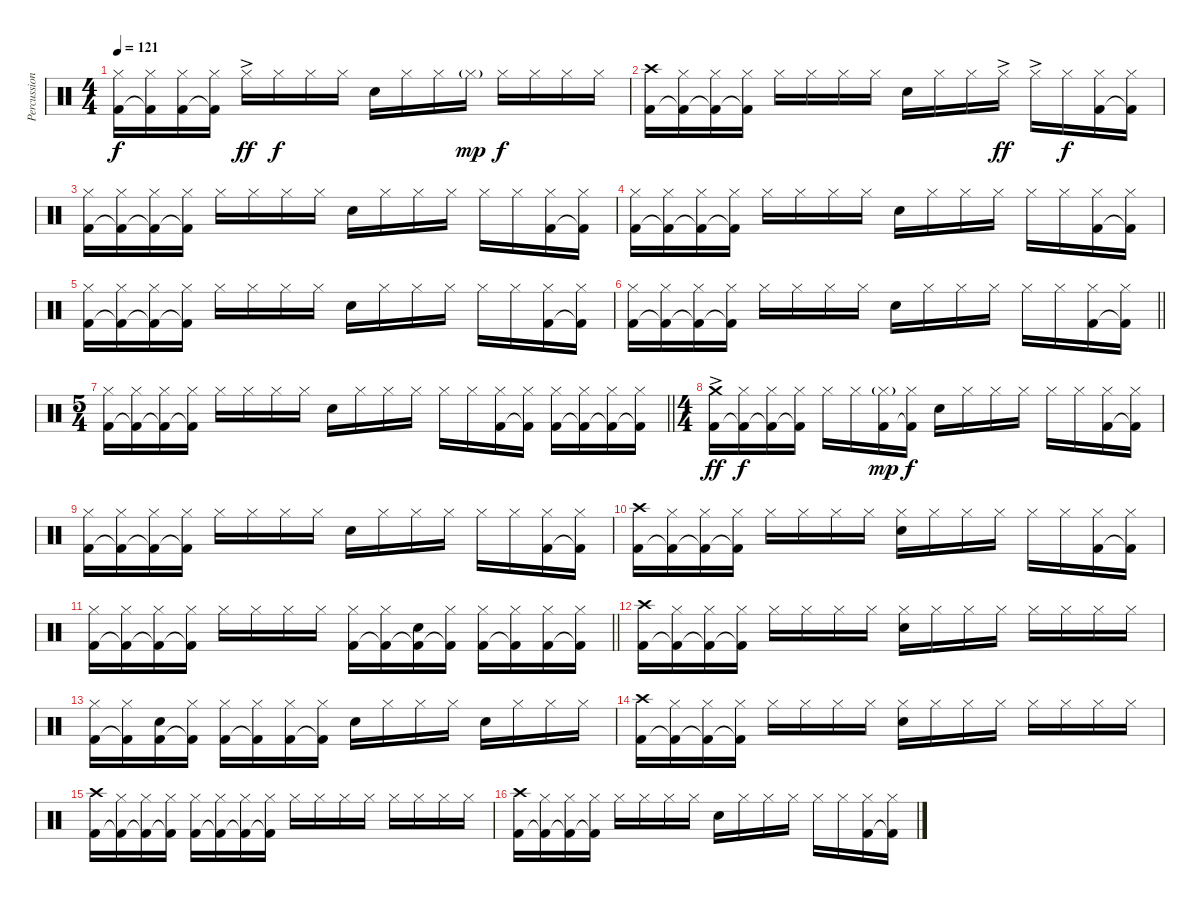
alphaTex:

\track ("Percussioni" "Percussion") {instrument percussion}
\staff {score}
\articulation defaults
\ts (4 4)
\tempo 121
\clef neutral
\ks c
("Hi-Hat (closed)" "Kick (hit) 2").16{dy f} ("Hi-Hat (closed)" "Kick (hit) 2"{t}).16 ("Hi-Hat (closed)" "Kick (hit) 2").16 ("Hi-Hat (closed)" "Kick (hit) 2"{t}).16 "Hi-Hat (closed)"{ac}.16{dy ff} "Hi-Hat (closed)".16{dy f} "Hi-Hat (closed)".16 "Hi-Hat (closed)".16 "Snare (hit) 2".16 "Hi-Hat (closed)".16 "Hi-Hat (closed)".16 "Hi-Hat (closed)"{g}.16{dy mp} "Hi-Hat (closed)".16{dy f} "Hi-Hat (closed)".16 "Hi-Hat (closed)".16 "Hi-Hat (closed)".16 |
("Crash high (hit)" "Kick (hit) 2").16 ("Hi-Hat (closed)" "Kick (hit) 2"{t}).16 ("Hi-Hat (closed)" "Kick (hit) 2"{t}).16 ("Hi-Hat (closed)" "Kick (hit) 2"{t}).16 "Hi-Hat (closed)".16 "Hi-Hat (closed)".16 "Hi-Hat (closed)".16 "Hi-Hat (closed)".16 "Snare (hit) 2".16 "Hi-Hat (closed)".16 "Hi-Hat (closed)".16 "Hi-Hat (closed)"{ac}.16{dy ff} "Hi-Hat (closed)"{ac}.16 "Hi-Hat (closed)".16{dy f} ("Hi-Hat (closed)" "Kick (hit) 2").16 ("Hi-Hat (closed)" "Kick (hit) 2"{t}).16 |
("Hi-Hat (closed)" "Kick (hit) 2").16 ("Hi-Hat (closed)" "Kick (hit) 2"{t}).16 ("Hi-Hat (closed)" "Kick (hit) 2"{t}).16 ("Hi-Hat (closed)" "Kick (hit) 2"{t}).16 "Hi-Hat (closed)".16 "Hi-Hat (closed)".16 "Hi-Hat (closed)".16 "Hi-Hat (closed)".16 "Snare (hit) 2".16 "Hi-Hat (closed)".16 "Hi-Hat (closed)".16 "Hi-Hat (closed)".16 "Hi-Hat (closed)".16 "Hi-Hat (closed)".16 ("Hi-Hat (closed)" "Kick (hit) 2").16 ("Hi-Hat (closed)" "Kick (hit) 2"{t}).16 |
("Hi-Hat (closed)" "Kick (hit) 2").16 ("Hi-Hat (closed)" "Kick (hit) 2"{t}).16 ("Hi-Hat (closed)" "Kick (hit) 2"{t}).16 ("Hi-Hat (closed)" "Kick (hit) 2"{t}).16 "Hi-Hat (closed)".16 "Hi-Hat (closed)".16 "Hi-Hat (closed)".16 "Hi-Hat (closed)".16 "Snare (hit) 2".16 "Hi-Hat (closed)".16 "Hi-Hat (closed)".16 "Hi-Hat (closed)".16 "Hi-Hat (closed)".16 "Hi-Hat (closed)".16 ("Hi-Hat (closed)" "Kick (hit) 2").16 ("Hi-Hat (closed)" "Kick (hit) 2"{t}).16 |
("Hi-Hat (closed)" "Kick (hit) 2").16 ("Hi-Hat (closed)" "Kick (hit) 2"{t}).16 ("Hi-Hat (closed)" "Kick (hit) 2"{t}).16 ("Hi-Hat (closed)" "Kick (hit) 2"{t}).16 "Hi-Hat (closed)".16 "Hi-Hat (closed)".16 "Hi-Hat (closed)".16 "Hi-Hat (closed)".16 "Snare (hit) 2".16 "Hi-Hat (closed)".16 "Hi-Hat (closed)".16 "Hi-Hat (closed)".16 "Hi-Hat (closed)".16 "Hi-Hat (closed)".16 ("Hi-Hat (closed)" "Kick (hit) 2").16 ("Hi-Hat (closed)" "Kick (hit) 2"{t}).16 |
\barLineRight lightlight
("Hi-Hat (closed)" "Kick (hit) 2").16 ("Hi-Hat (closed)" "Kick (hit) 2"{t}).16 ("Hi-Hat (closed)" "Kick (hit) 2"{t}).16 ("Hi-Hat (closed)" "Kick (hit) 2"{t}).16 "Hi-Hat (closed)".16 "Hi-Hat (closed)".16 "Hi-Hat (closed)".16 "Hi-Hat (closed)".16 "Snare (hit) 2".16 "Hi-Hat (closed)".16 "Hi-Hat (closed)".16 "Hi-Hat (closed)".16 "Hi-Hat (closed)".16 "Hi-Hat (closed)".16 ("Hi-Hat (closed)" "Kick (hit) 2").16 ("Hi-Hat (closed)" "Kick (hit) 2"{t}).16 |
\ts (5 4)
\barLineRight lightlight
("Hi-Hat (closed)" "Kick (hit) 2").16 ("Hi-Hat (closed)" "Kick (hit) 2"{t}).16 ("Hi-Hat (closed)" "Kick (hit) 2"{t}).16 ("Hi-Hat (closed)" "Kick (hit) 2"{t}).16 "Hi-Hat (closed)".16 "Hi-Hat (closed)".16 "Hi-Hat (closed)".16 "Hi-Hat (closed)".16 "Snare (hit) 2".16 "Hi-Hat (closed)".16 "Hi-Hat (closed)".16 "Hi-Hat (closed)".16 "Hi-Hat (closed)".16 "Hi-Hat (closed)".16 ("Hi-Hat (closed)" "Kick (hit) 2").16 ("Hi-Hat (closed)" "Kick (hit) 2"{t}).16 ("Hi-Hat (closed)" "Kick (hit) 2").16 ("Hi-Hat (closed)" "Kick (hit) 2"{t}).16 ("Hi-Hat (closed)" "Kick (hit) 2"{t}).16 ("Hi-Hat (closed)" "Kick (hit) 2"{t}).16 |
\ts (4 4)
("Crash medium (hit)"{ac} "Kick (hit) 2").16{dy ff} ("Hi-Hat (closed)" "Kick (hit) 2"{t}).16{dy f} ("Hi-Hat (closed)" "Kick (hit) 2"{t}).16 ("Hi-Hat (closed)" "Kick (hit) 2"{t}).16 "Hi-Hat (closed)".16 "Hi-Hat (closed)".16 ("Hi-Hat (closed)"{g} "Kick (hit) 2").16{dy mp} ("Hi-Hat (closed)" "Kick (hit) 2"{t}).16{dy f} "Snare (hit) 2".16 "Hi-Hat (closed)".16 "Hi-Hat (closed)".16 "Hi-Hat (closed)".16 "Hi-Hat (closed)".16 "Hi-Hat (closed)".16 ("Hi-Hat (closed)" "Kick (hit) 2").16 ("Hi-Hat (closed)" "Kick (hit) 2"{t}).16 |
("Hi-Hat (closed)" "Kick (hit) 2").16 ("Hi-Hat (closed)" "Kick (hit) 2"{t}).16 ("Hi-Hat (closed)" "Kick (hit) 2"{t}).16 ("Hi-Hat (closed)" "Kick (hit) 2"{t}).16 "Hi-Hat (closed)".16 "Hi-Hat (closed)".16 "Hi-Hat (closed)".16 "Hi-Hat (closed)".16 "Snare (hit) 2".16 "Hi-Hat (closed)".16 "Hi-Hat (closed)".16 "Hi-Hat (closed)".16 "Hi-Hat (closed)".16 "Hi-Hat (closed)".16 ("Hi-Hat (closed)" "Kick (hit) 2").16 ("Hi-Hat (closed)" "Kick (hit) 2"{t}).16 |
("Crash high (hit)" "Kick (hit) 2").16 ("Hi-Hat (closed)" "Kick (hit) 2"{t}).16 ("Hi-Hat (closed)" "Kick (hit) 2"{t}).16 ("Hi-Hat (closed)" "Kick (hit) 2"{t}).16 "Hi-Hat (closed)".16 "Hi-Hat (closed)".16 "Hi-Hat (closed)".16 "Hi-Hat (closed)".16 ("Hi-Hat (closed)" "Snare (hit) 2").16 "Hi-Hat (closed)".16 "Hi-Hat (closed)".16 "Hi-Hat (closed)".16 "Hi-Hat (closed)".16 "Hi-Hat (closed)".16 ("Hi-Hat (closed)" "Kick (hit) 2").16 ("Hi-Hat (closed)" "Kick (hit) 2"{t}).16 |
\barLineRight lightlight
("Hi-Hat (closed)" "Kick (hit) 2").16 ("Hi-Hat (closed)" "Kick (hit) 2"{t}).16 ("Hi-Hat (closed)" "Kick (hit) 2"{t}).16 ("Hi-Hat (closed)" "Kick (hit) 2"{t}).16 "Hi-Hat (closed)".16 "Hi-Hat (closed)".16 "Hi-Hat (closed)".16 "Hi-Hat (closed)".16 ("Hi-Hat (closed)" "Kick (hit) 2").16 ("Hi-Hat (closed)" "Kick (hit) 2"{t}).16 ("Snare (hit) 2" "Kick (hit) 2"{t}).16 ("Hi-Hat (closed)" "Kick (hit) 2"{t}).16 ("Hi-Hat (closed)" "Kick (hit) 2").16 ("Hi-Hat (closed)" "Kick (hit) 2"{t}).16 ("Hi-Hat (closed)" "Kick (hit) 2").16 ("Hi-Hat (closed)" "Kick (hit) 2"{t}).16 |
("Crash high (hit)" "Kick (hit) 2").16 ("Hi-Hat (closed)" "Kick (hit) 2"{t}).16 ("Hi-Hat (closed)" "Kick (hit) 2"{t}).16 ("Hi-Hat (closed)" "Kick (hit) 2"{t}).16 "Hi-Hat (closed)".16 "Hi-Hat (closed)".16 "Hi-Hat (closed)".16 "Hi-Hat (closed)".16 ("Hi-Hat (closed)" "Snare (hit) 2").16 "Hi-Hat (closed)".16 "Hi-Hat (closed)".16 "Hi-Hat (closed)".16 "Hi-Hat (closed)".16 "Hi-Hat (closed)".16 "Hi-Hat (closed)".16 "Hi-Hat (closed)".16 |
("Hi-Hat (closed)" "Kick (hit) 2").16 ("Hi-Hat (closed)" "Kick (hit) 2"{t}).16 ("Snare (hit) 2" "Kick (hit) 2").16 ("Hi-Hat (closed)" "Kick (hit) 2"{t}).16 ("Hi-Hat (closed)" "Kick (hit) 2").16 ("Hi-Hat (closed)" "Kick (hit) 2"{t}).16 ("Hi-Hat (closed)" "Kick (hit) 2").16 ("Hi-Hat (closed)" "Kick (hit) 2"{t}).16 "Snare (hit) 2".16 "Hi-Hat (closed)".16 "Hi-Hat (closed)".16 "Hi-Hat (closed)".16 "Snare (hit) 2".16 "Hi-Hat (closed)".16 "Hi-Hat (closed)".16 "Hi-Hat (closed)".16 |
("Crash high (hit)" "Kick (hit) 2").16 ("Hi-Hat (closed)" "Kick (hit) 2"{t}).16 ("Hi-Hat (closed)" "Kick (hit) 2"{t}).16 ("Hi-Hat (closed)" "Kick (hit) 2"{t}).16 "Hi-Hat (closed)".16 "Hi-Hat (closed)".16 "Hi-Hat (closed)".16 "Hi-Hat (closed)".16 ("Hi-Hat (closed)" "Snare (hit) 2").16 "Hi-Hat (closed)".16 "Hi-Hat (closed)".16 "Hi-Hat (closed)".16 "Hi-Hat (closed)".16 "Hi-Hat (closed)".16 "Hi-Hat (closed)".16 "Hi-Hat (closed)".16 |
("Crash high (hit)" "Kick (hit) 2").16 ("Hi-Hat (closed)" "Kick (hit) 2"{t}).16 ("Hi-Hat (closed)" "Kick (hit) 2"{t}).16 ("Hi-Hat (closed)" "Kick (hit) 2"{t}).16 ("Hi-Hat (closed)" "Kick (hit) 2").16 ("Hi-Hat (closed)" "Kick (hit) 2"{t}).16 ("Hi-Hat (closed)" "Kick (hit) 2"{t}).16 ("Hi-Hat (closed)" "Kick (hit) 2"{t}).16 "Hi-Hat (closed)".16 "Hi-Hat (closed)".16 "Hi-Hat (closed)".16 "Hi-Hat (closed)".16 "Hi-Hat (closed)".16 "Hi-Hat (closed)".16 "Hi-Hat (closed)".16 "Hi-Hat (closed)".16 |
("Crash high (hit)" "Kick (hit) 2").16 ("Hi-Hat (closed)" "Kick (hit) 2"{t}).16 ("Hi-Hat (closed)" "Kick (hit) 2"{t}).16 ("Hi-Hat (closed)" "Kick (hit) 2"{t}).16 "Hi-Hat (closed)".16 "Hi-Hat (closed)".16 "Hi-Hat (closed)".16 "Hi-Hat (closed)".16 "Snare (hit) 2".16 "Hi-Hat (closed)".16 "Hi-Hat (closed)".16 "Hi-Hat (closed)".16 "Hi-Hat (closed)".16 "Hi-Hat (closed)".16 ("Hi-Hat (closed)" "Kick (hit) 2").16 ("Hi-Hat (closed)" "Kick (hit) 2"{t}).16
